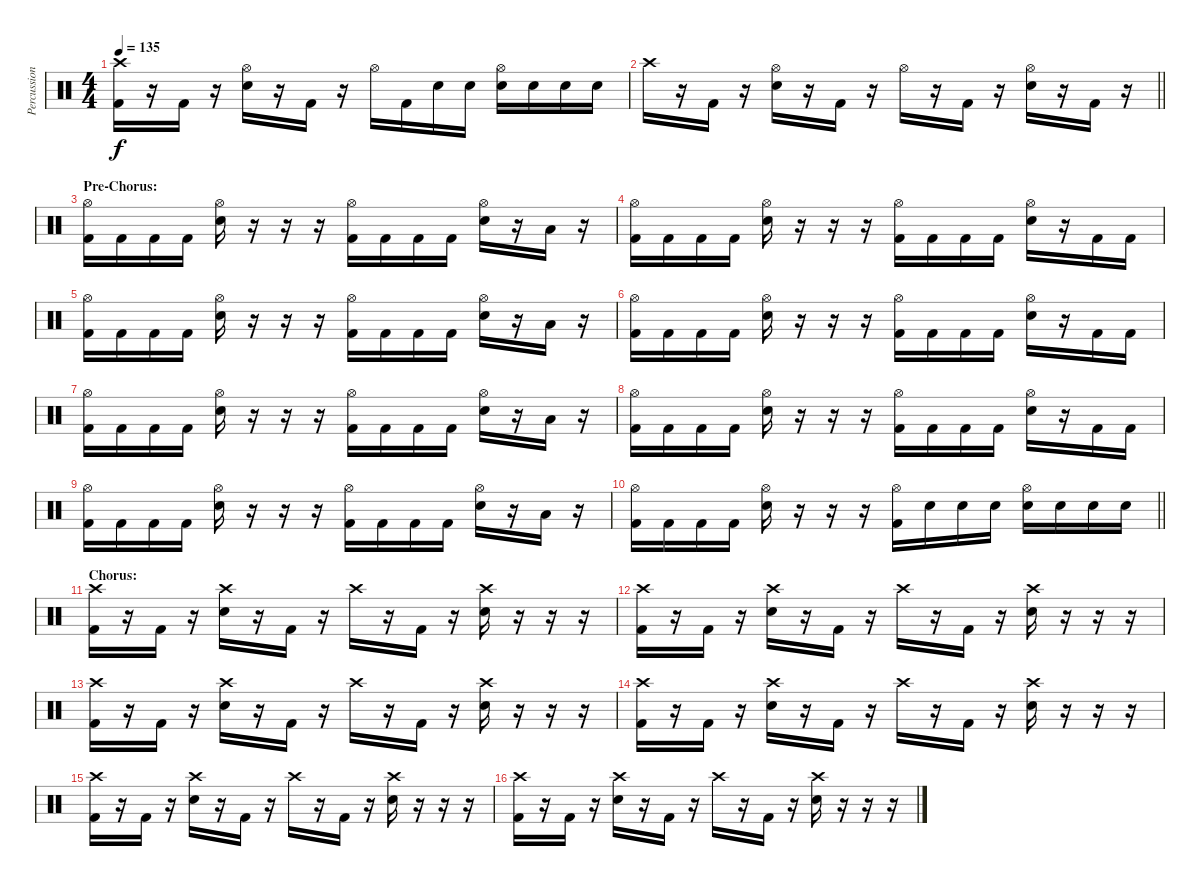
\track ("Percussion" "Percussion") {instrument percussion}
\staff {score}
\articulation defaults
\ts (4 4)
\tempo 135
\clef neutral
\ks c
("Crash high (hit)" "Kick (hit) 2").16{dy f} r.16 "Kick (hit) 2".16 r.16 ("Hi-Hat (open)" "Electric Snare (hit)").16 r.16 "Kick (hit) 2".16 r.16 "Hi-Hat (open)".16 "Kick (hit) 2".16 "Electric Snare (hit)".16 "Electric Snare (hit)".16 ("Hi-Hat (open)" "Electric Snare (hit)").16 "Electric Snare (hit)".16 "Electric Snare (hit)".16 "Electric Snare (hit)".16 |
\barLineRight lightlight "Crash high (hit)".16
r.16 "Kick (hit) 2".16 r.16 ("Hi-Hat (open)" "Electric Snare (hit)").16 r.16 "Kick (hit) 2".16 r.16 "Hi-Hat (open)".16 r.16 "Kick (hit) 2".16 r.16 ("Hi-Hat (open)" "Electric Snare (hit)").16 r.16 "Kick (hit) 2".16 r.16 |
\section ("" "Pre-Chorus:")
("Hi-Hat (open)" "Kick (hit) 2").16 "Kick (hit) 2".16 "Kick (hit) 2".16 "Kick (hit) 2".16 ("Hi-Hat (open)" "Electric Snare (hit)").16 r.16 r.16 r.16 ("Hi-Hat (open)" "Kick (hit) 2").16 "Kick (hit) 2".16 "Kick (hit) 2".16 "Kick (hit) 2".16 ("Hi-Hat (open)" "Electric Snare (hit)").16 r.16 "Low Floor Tom (hit)".16 r.16 |
("Hi-Hat (open)" "Kick (hit) 2").16 "Kick (hit) 2".16 "Kick (hit) 2".16 "Kick (hit) 2".16 ("Hi-Hat (open)" "Electric Snare (hit)").16 r.16 r.16 r.16 ("Hi-Hat (open)" "Kick (hit) 2").16 "Kick (hit) 2".16 "Kick (hit) 2".16 "Kick (hit) 2".16 ("Hi-Hat (open)" "Electric Snare (hit)").16 r.16 "Kick (hit) 2".16 "Kick (hit) 2".16 |
("Hi-Hat (open)" "Kick (hit) 2").16 "Kick (hit) 2".16 "Kick (hit) 2".16 "Kick (hit) 2".16 ("Hi-Hat (open)" "Electric Snare (hit)").16 r.16 r.16 r.16 ("Hi-Hat (open)" "Kick (hit) 2").16 "Kick (hit) 2".16 "Kick (hit) 2".16 "Kick (hit) 2".16 ("Hi-Hat (open)" "Electric Snare (hit)").16 r.16 "Low Floor Tom (hit)".16 r.16 |
("Hi-Hat (open)" "Kick (hit) 2").16 "Kick (hit) 2".16 "Kick (hit) 2".16 "Kick (hit) 2".16 ("Hi-Hat (open)" "Electric Snare (hit)").16 r.16 r.16 r.16 ("Hi-Hat (open)" "Kick (hit) 2").16 "Kick (hit) 2".16 "Kick (hit) 2".16 "Kick (hit) 2".16 ("Hi-Hat (open)" "Electric Snare (hit)").16 r.16 "Kick (hit) 2".16 "Kick (hit) 2".16 |
("Hi-Hat (open)" "Kick (hit) 2").16 "Kick (hit) 2".16 "Kick (hit) 2".16 "Kick (hit) 2".16 ("Hi-Hat (open)" "Electric Snare (hit)").16 r.16 r.16 r.16 ("Hi-Hat (open)" "Kick (hit) 2").16 "Kick (hit) 2".16 "Kick (hit) 2".16 "Kick (hit) 2".16 ("Hi-Hat (open)" "Electric Snare (hit)").16 r.16 "Low Floor Tom (hit)".16 r.16 |
("Hi-Hat (open)" "Kick (hit) 2").16 "Kick (hit) 2".16 "Kick (hit) 2".16 "Kick (hit) 2".16 ("Hi-Hat (open)" "Electric Snare (hit)").16 r.16 r.16 r.16 ("Hi-Hat (open)" "Kick (hit) 2").16 "Kick (hit) 2".16 "Kick (hit) 2".16 "Kick (hit) 2".16 ("Hi-Hat (open)" "Electric Snare (hit)").16 r.16 "Kick (hit) 2".16 "Kick (hit) 2".16 |
("Hi-Hat (open)" "Kick (hit) 2").16 "Kick (hit) 2".16 "Kick (hit) 2".16 "Kick (hit) 2".16 ("Hi-Hat (open)" "Electric Snare (hit)").16 r.16 r.16 r.16 ("Hi-Hat (open)" "Kick (hit) 2").16 "Kick (hit) 2".16 "Kick (hit) 2".16 "Kick (hit) 2".16 ("Hi-Hat (open)" "Electric Snare (hit)").16 r.16 "Low Floor Tom (hit)".16 r.16 |
\barLineRight lightlight
("Hi-Hat (open)" "Kick (hit) 2").16 "Kick (hit) 2".16 "Kick (hit) 2".16 "Kick (hit) 2".16 ("Hi-Hat (open)" "Electric Snare (hit)").16 r.16 r.16 r.16 ("Hi-Hat (open)" "Kick (hit) 2").16 "Electric Snare (hit)".16 "Electric Snare (hit)".16 "Electric Snare (hit)".16 ("Hi-Hat (open)" "Electric Snare (hit)").16 "Electric Snare (hit)".16 "Electric Snare (hit)".16 "Electric Snare (hit)".16 |
\section ("" "Chorus:")
("Crash high (hit)" "Kick (hit) 2").16 r.16 "Kick (hit) 2".16 r.16 ("Crash high (hit)" "Electric Snare (hit)").16 r.16 "Kick (hit) 2".16 r.16 "Crash high (hit)".16 r.16 "Kick (hit) 2".16 r.16 ("Crash high (hit)" "Electric Snare (hit)").16 r.16 r.16 r.16 |
("Crash high (hit)" "Kick (hit) 2").16 r.16 "Kick (hit) 2".16 r.16 ("Crash high (hit)" "Electric Snare (hit)").16 r.16 "Kick (hit) 2".16 r.16 "Crash high (hit)".16 r.16 "Kick (hit) 2".16 r.16 ("Crash high (hit)" "Electric Snare (hit)").16 r.16 r.16 r.16 |
("Crash high (hit)" "Kick (hit) 2").16 r.16 "Kick (hit) 2".16 r.16 ("Crash high (hit)" "Electric Snare (hit)").16 r.16 "Kick (hit) 2".16 r.16 "Crash high (hit)".16 r.16 "Kick (hit) 2".16 r.16 ("Crash high (hit)" "Electric Snare (hit)").16 r.16 r.16 r.16 |
("Crash high (hit)" "Kick (hit) 2").16 r.16 "Kick (hit) 2".16 r.16 ("Crash high (hit)" "Electric Snare (hit)").16 r.16 "Kick (hit) 2".16 r.16 "Crash high (hit)".16 r.16 "Kick (hit) 2".16 r.16 ("Crash high (hit)" "Electric Snare (hit)").16 r.16 r.16 r.16 |
("Crash high (hit)" "Kick (hit) 2").16 r.16 "Kick (hit) 2".16 r.16 ("Crash high (hit)" "Electric Snare (hit)").16 r.16 "Kick (hit) 2".16 r.16 "Crash high (hit)".16 r.16 "Kick (hit) 2".16 r.16 ("Crash high (hit)" "Electric Snare (hit)").16 r.16 r.16 r.16 |
("Crash high (hit)" "Kick (hit) 2").16 r.16 "Kick (hit) 2".16 r.16 ("Crash high (hit)" "Electric Snare (hit)").16 r.16 "Kick (hit) 2".16 r.16 "Crash high (hit)".16 r.16 "Kick (hit) 2".16 r.16 ("Crash high (hit)" "Electric Snare (hit)").16 r.16 r.16 r.16
